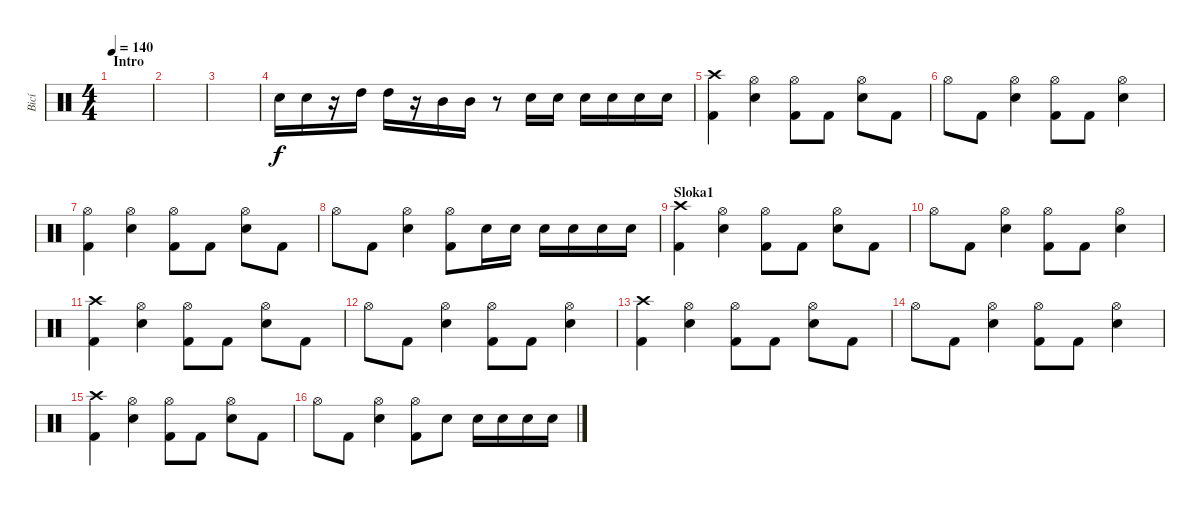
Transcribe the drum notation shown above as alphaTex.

\track ("Bicí" "Bicí") {instrument percussion}
\staff {score}
\articulation defaults
\ts (4 4)
\section ("" "Intro")
\tempo 140
\clef neutral
\ks c
|
|
|
"Snare (hit) 2".16 "Snare (hit) 2".16 r.16 "High Tom (hit)".16 "High Tom (hit)".16 r.16 "Mid Tom (hit)".16 "Mid Tom (hit)".16 r.8 "Snare (hit) 2".16 "Snare (hit) 2".16 "Snare (hit) 2".16 "Snare (hit) 2".16 "Snare (hit) 2".16 "Snare (hit) 2".16 |
("Crash high (hit)" "Kick (hit) 2").4 ("Hi-Hat (open)" "Snare (hit) 2").4 ("Hi-Hat (open)" "Kick (hit) 2").8 "Kick (hit) 2".8 ("Hi-Hat (open)" "Snare (hit) 2").8 "Kick (hit) 2".8 |
"Hi-Hat (open)".8 "Kick (hit) 2".8 ("Hi-Hat (open)" "Snare (hit) 2").4 ("Hi-Hat (open)" "Kick (hit) 2").8 "Kick (hit) 2".8 ("Hi-Hat (open)" "Snare (hit) 2").4 |
("Hi-Hat (open)" "Kick (hit) 2").4 ("Hi-Hat (open)" "Snare (hit) 2").4 ("Hi-Hat (open)" "Kick (hit) 2").8 "Kick (hit) 2".8 ("Hi-Hat (open)" "Snare (hit) 2").8 "Kick (hit) 2".8 |
"Hi-Hat (open)".8 "Kick (hit) 2".8 ("Hi-Hat (open)" "Snare (hit) 2").4 ("Hi-Hat (open)" "Kick (hit) 2").8 "Snare (hit) 2".16 "Snare (hit) 2".16 "Snare (hit) 2".16 "Snare (hit) 2".16 "Snare (hit) 2".16 "Snare (hit) 2".16 |
\section ("" "Sloka1")
("Crash high (hit)" "Kick (hit) 2").4 ("Hi-Hat (open)" "Snare (hit) 2").4 ("Hi-Hat (open)" "Kick (hit) 2").8 "Kick (hit) 2".8 ("Hi-Hat (open)" "Snare (hit) 2").8 "Kick (hit) 2".8 |
"Hi-Hat (open)".8 "Kick (hit) 2".8 ("Hi-Hat (open)" "Snare (hit) 2").4 ("Hi-Hat (open)" "Kick (hit) 2").8 "Kick (hit) 2".8 ("Hi-Hat (open)" "Snare (hit) 2").4 |
("Crash high (hit)" "Kick (hit) 2").4 ("Hi-Hat (open)" "Snare (hit) 2").4 ("Hi-Hat (open)" "Kick (hit) 2").8 "Kick (hit) 2".8 ("Hi-Hat (open)" "Snare (hit) 2").8 "Kick (hit) 2".8 |
"Hi-Hat (open)".8 "Kick (hit) 2".8 ("Hi-Hat (open)" "Snare (hit) 2").4 ("Hi-Hat (open)" "Kick (hit) 2").8 "Kick (hit) 2".8 ("Hi-Hat (open)" "Snare (hit) 2").4 |
("Crash high (hit)" "Kick (hit) 2").4 ("Hi-Hat (open)" "Snare (hit) 2").4 ("Hi-Hat (open)" "Kick (hit) 2").8 "Kick (hit) 2".8 ("Hi-Hat (open)" "Snare (hit) 2").8 "Kick (hit) 2".8 |
"Hi-Hat (open)".8 "Kick (hit) 2".8 ("Hi-Hat (open)" "Snare (hit) 2").4 ("Hi-Hat (open)" "Kick (hit) 2").8 "Kick (hit) 2".8 ("Hi-Hat (open)" "Snare (hit) 2").4 |
("Crash high (hit)" "Kick (hit) 2").4 ("Hi-Hat (open)" "Snare (hit) 2").4 ("Hi-Hat (open)" "Kick (hit) 2").8 "Kick (hit) 2".8 ("Hi-Hat (open)" "Snare (hit) 2").8 "Kick (hit) 2".8 |
"Hi-Hat (open)".8 "Kick (hit) 2".8 ("Hi-Hat (open)" "Snare (hit) 2").4 ("Hi-Hat (open)" "Kick (hit) 2").8 "Snare (hit) 2".8 "Snare (hit) 2".16 "Snare (hit) 2".16 "Snare (hit) 2".16 "Snare (hit) 2".16
